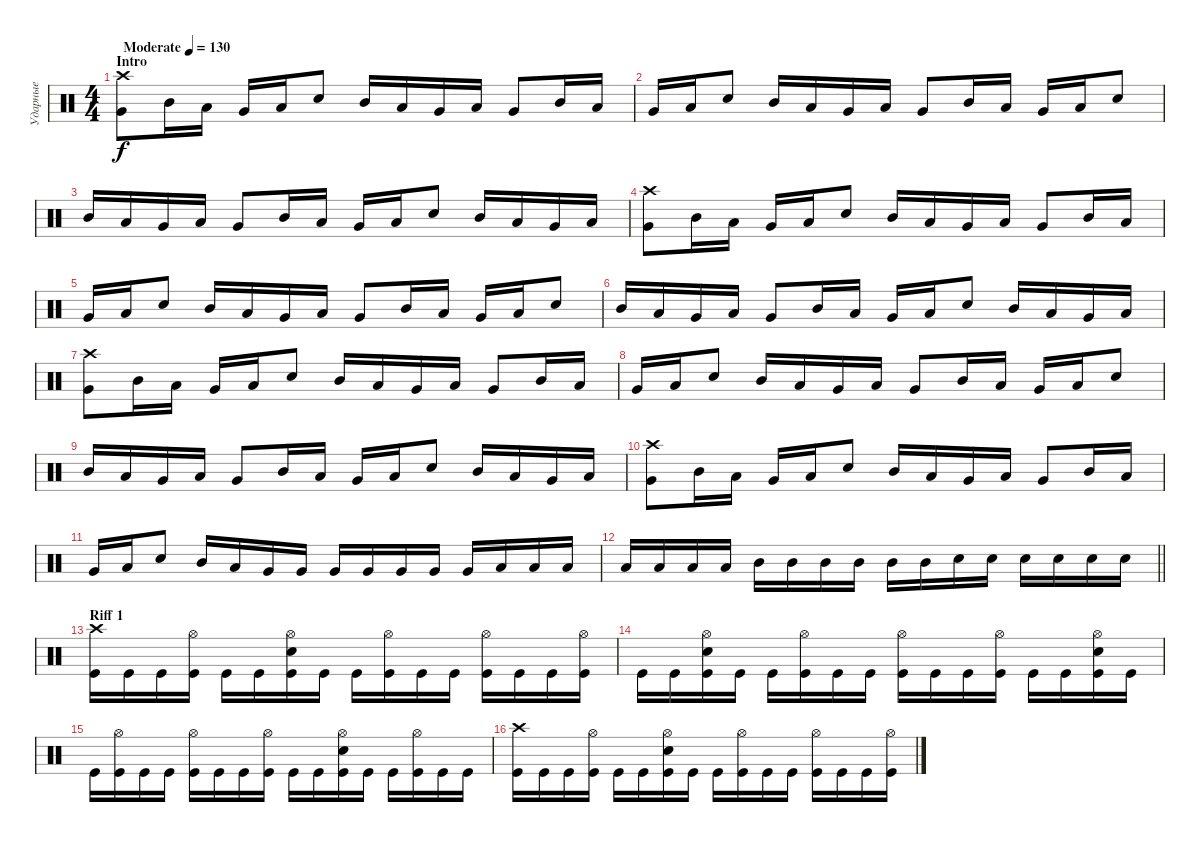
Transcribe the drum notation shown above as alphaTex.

\track ("Ударные" "Ударные") {instrument percussion}
\staff {score}
\articulation defaults
\ts (4 4)
\section ("" "Intro")
\tempo (130 "Moderate")
\clef neutral
\ks c
("Crash high (hit)" "Very Low Tom (hit)").8{dy f volume 0} "Mid Tom (hit)".16 "Low Tom (hit)".16 "Very Low Tom (hit)".16 "Low Floor Tom (hit)".16 "Snare (hit) 2".8 "Mid Tom (hit)".16 "Low Tom (hit)".16 "Very Low Tom (hit)".16 "Low Floor Tom (hit)".16 "Very Low Tom (hit)".8 "Mid Tom (hit)".16 "Low Tom (hit)".16 |
"Very Low Tom (hit)".16 "Low Floor Tom (hit)".16 "Snare (hit) 2".8 "Mid Tom (hit)".16 "Low Tom (hit)".16 "Very Low Tom (hit)".16 "Low Floor Tom (hit)".16 "Very Low Tom (hit)".8 "Mid Tom (hit)".16 "Low Tom (hit)".16 "Very Low Tom (hit)".16 "Low Floor Tom (hit)".16 "Snare (hit) 2".8 |
"Mid Tom (hit)".16 "Low Tom (hit)".16 "Very Low Tom (hit)".16 "Low Floor Tom (hit)".16 "Very Low Tom (hit)".8 "Mid Tom (hit)".16 "Low Tom (hit)".16 "Very Low Tom (hit)".16 "Low Floor Tom (hit)".16 "Snare (hit) 2".8 "Mid Tom (hit)".16 "Low Tom (hit)".16 "Very Low Tom (hit)".16 "Low Floor Tom (hit)".16 |
("Crash high (hit)" "Very Low Tom (hit)").8{volume 6} "Mid Tom (hit)".16 "Low Tom (hit)".16 "Very Low Tom (hit)".16 "Low Floor Tom (hit)".16 "Snare (hit) 2".8 "Mid Tom (hit)".16 "Low Tom (hit)".16 "Very Low Tom (hit)".16 "Low Floor Tom (hit)".16 "Very Low Tom (hit)".8 "Mid Tom (hit)".16 "Low Tom (hit)".16 |
"Very Low Tom (hit)".16{volume 7} "Low Floor Tom (hit)".16 "Snare (hit) 2".8 "Mid Tom (hit)".16 "Low Tom (hit)".16 "Very Low Tom (hit)".16 "Low Floor Tom (hit)".16{volume 8} "Very Low Tom (hit)".8 "Mid Tom (hit)".16 "Low Tom (hit)".16 "Very Low Tom (hit)".16 "Low Floor Tom (hit)".16 "Snare (hit) 2".8{volume 9} |
"Mid Tom (hit)".16 "Low Tom (hit)".16 "Very Low Tom (hit)".16 "Low Floor Tom (hit)".16 "Very Low Tom (hit)".8 "Mid Tom (hit)".16{volume 10} "Low Tom (hit)".16 "Very Low Tom (hit)".16 "Low Floor Tom (hit)".16 "Snare (hit) 2".8{volume 11} "Mid Tom (hit)".16 "Low Tom (hit)".16 "Very Low Tom (hit)".16 "Low Floor Tom (hit)".16{volume 12} |
("Crash high (hit)" "Very Low Tom (hit)").8{volume 13} "Mid Tom (hit)".16 "Low Tom (hit)".16 "Very Low Tom (hit)".16 "Low Floor Tom (hit)".16 "Snare (hit) 2".8 "Mid Tom (hit)".16 "Low Tom (hit)".16 "Very Low Tom (hit)".16 "Low Floor Tom (hit)".16 "Very Low Tom (hit)".8 "Mid Tom (hit)".16 "Low Tom (hit)".16 |
"Very Low Tom (hit)".16 "Low Floor Tom (hit)".16 "Snare (hit) 2".8 "Mid Tom (hit)".16 "Low Tom (hit)".16 "Very Low Tom (hit)".16 "Low Floor Tom (hit)".16 "Very Low Tom (hit)".8 "Mid Tom (hit)".16 "Low Tom (hit)".16 "Very Low Tom (hit)".16 "Low Floor Tom (hit)".16 "Snare (hit) 2".8 |
"Mid Tom (hit)".16 "Low Tom (hit)".16 "Very Low Tom (hit)".16 "Low Floor Tom (hit)".16 "Very Low Tom (hit)".8 "Mid Tom (hit)".16 "Low Tom (hit)".16 "Very Low Tom (hit)".16 "Low Floor Tom (hit)".16 "Snare (hit) 2".8 "Mid Tom (hit)".16 "Low Tom (hit)".16 "Very Low Tom (hit)".16 "Low Floor Tom (hit)".16 |
("Crash high (hit)" "Very Low Tom (hit)").8 "Mid Tom (hit)".16 "Low Tom (hit)".16 "Very Low Tom (hit)".16 "Low Floor Tom (hit)".16 "Snare (hit) 2".8 "Mid Tom (hit)".16 "Low Tom (hit)".16 "Very Low Tom (hit)".16 "Low Floor Tom (hit)".16 "Very Low Tom (hit)".8 "Mid Tom (hit)".16 "Low Tom (hit)".16 |
"Very Low Tom (hit)".16 "Low Floor Tom (hit)".16 "Snare (hit) 2".8 "Mid Tom (hit)".16 "Low Tom (hit)".16 "Very Low Tom (hit)".16 "Very Low Tom (hit)".16 "Very Low Tom (hit)".16 "Very Low Tom (hit)".16 "Very Low Tom (hit)".16 "Very Low Tom (hit)".16 "Very Low Tom (hit)".16 "Low Tom (hit)".16 "Low Tom (hit)".16 "Low Tom (hit)".16 |
\barLineRight lightlight "Low Tom (hit)".16 "Low Tom (hit)".16 "Low Tom (hit)".16 "Low Tom (hit)".16 "Mid Tom (hit)".16 "Mid Tom (hit)".16 "Mid Tom (hit)".16 "Mid Tom (hit)".16 "Mid Tom (hit)".16 "Mid Tom (hit)".16 "Snare (hit) 2".16 "Snare (hit) 2".16 "Snare (hit) 2".16 "Snare (hit) 2".16 "Snare (hit) 2".16 "Snare (hit) 2".16
|
\section ("" "Riff 1")
("Crash high (hit)" "Kick (hit)").16 "Kick (hit)".16 "Kick (hit)".16 ("Hi-Hat (open)" "Kick (hit)").16 "Kick (hit)".16 "Kick (hit)".16 ("Hi-Hat (open)" "Snare (hit) 2" "Kick (hit)").16 "Kick (hit)".16 "Kick (hit)".16 ("Hi-Hat (open)" "Kick (hit)").16 "Kick (hit)".16 "Kick (hit)".16 ("Hi-Hat (open)" "Kick (hit)").16 "Kick (hit)".16 "Kick (hit)".16 ("Hi-Hat (open)" "Kick (hit)").16 |
"Kick (hit)".16 "Kick (hit)".16 ("Hi-Hat (open)" "Snare (hit) 2" "Kick (hit)").16 "Kick (hit)".16 "Kick (hit)".16 ("Hi-Hat (open)" "Kick (hit)").16 "Kick (hit)".16 "Kick (hit)".16 ("Hi-Hat (open)" "Kick (hit)").16 "Kick (hit)".16 "Kick (hit)".16 ("Hi-Hat (open)" "Kick (hit)").16 "Kick (hit)".16 "Kick (hit)".16 ("Hi-Hat (open)" "Snare (hit) 2" "Kick (hit)").16 "Kick (hit)".16 |
"Kick (hit)".16 ("Hi-Hat (open)" "Kick (hit)").16 "Kick (hit)".16 "Kick (hit)".16 ("Hi-Hat (open)" "Kick (hit)").16 "Kick (hit)".16 "Kick (hit)".16 ("Hi-Hat (open)" "Kick (hit)").16 "Kick (hit)".16 "Kick (hit)".16 ("Snare (hit) 2" "Hi-Hat (open)" "Kick (hit)").16 "Kick (hit)".16 "Kick (hit)".16 ("Hi-Hat (open)" "Kick (hit)").16 "Kick (hit)".16 "Kick (hit)".16 |
("Crash high (hit)" "Kick (hit)").16 "Kick (hit)".16 "Kick (hit)".16 ("Hi-Hat (open)" "Kick (hit)").16 "Kick (hit)".16 "Kick (hit)".16 ("Hi-Hat (open)" "Snare (hit) 2" "Kick (hit)").16 "Kick (hit)".16 "Kick (hit)".16 ("Hi-Hat (open)" "Kick (hit)").16 "Kick (hit)".16 "Kick (hit)".16 ("Hi-Hat (open)" "Kick (hit)").16 "Kick (hit)".16 "Kick (hit)".16 ("Hi-Hat (open)" "Kick (hit)").16
